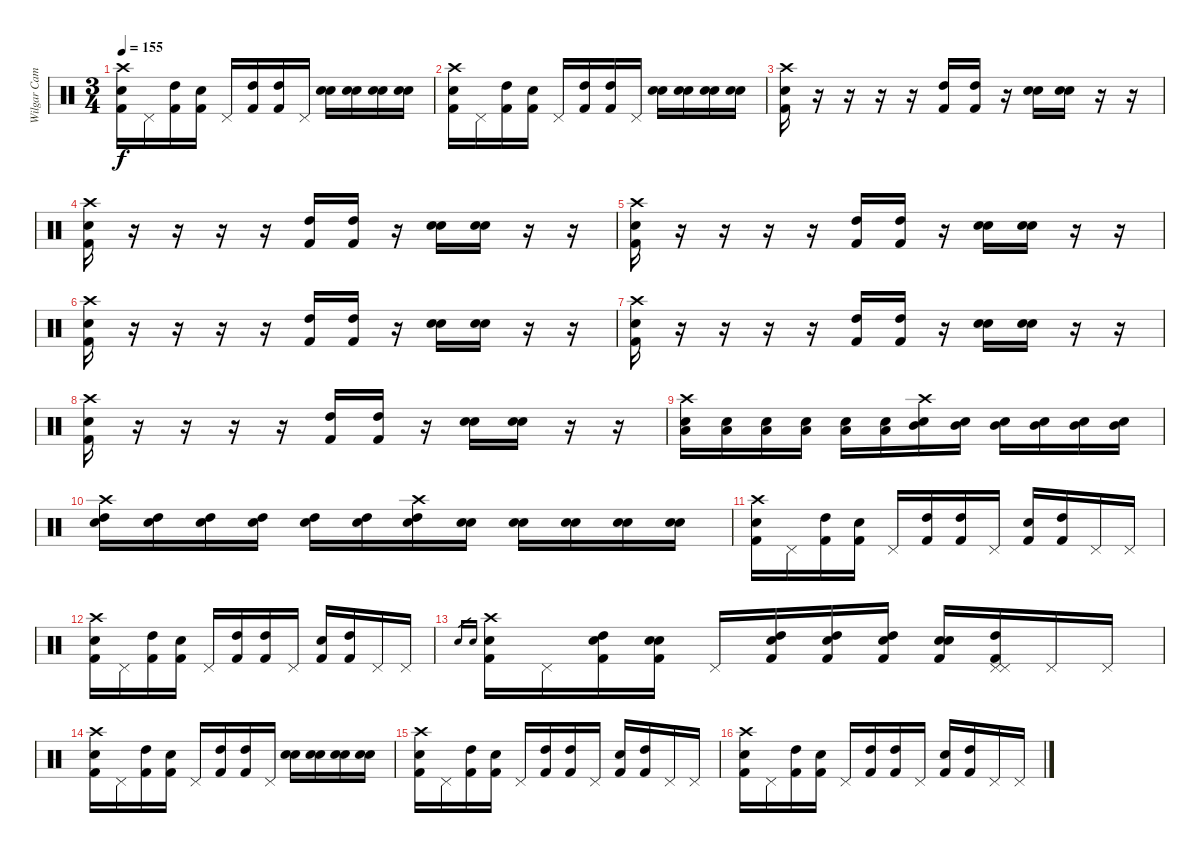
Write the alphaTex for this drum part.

\track ("Wilgar Campbell" "Wilgar Cam") {instrument percussion}
\staff {score}
\articulation defaults
\ts (3 4)
\tempo 155
\clef neutral
\ks c
("Kick (hit) 2" "Snare (hit) 2" "Crash high (hit)").16{dy f} "Pedal Hi-Hat (hit)".16 ("Kick (hit) 2" "High Tom (hit)").16 ("Kick (hit) 2" "Snare (hit) 2").16 "Pedal Hi-Hat (hit)".16 ("High Tom (hit)" "Kick (hit) 2").16 ("High Tom (hit)" "Kick (hit) 2").16 "Pedal Hi-Hat (hit)".16 ("Electric Snare (hit)" "Electric Snare (hit)").16 ("Electric Snare (hit)" "Electric Snare (hit)").16 ("Electric Snare (hit)" "Electric Snare (hit)").16 ("Electric Snare (hit)" "Electric Snare (hit)").16 |
("Kick (hit) 2" "Snare (hit) 2" "Crash high (hit)").16 "Pedal Hi-Hat (hit)".16 ("Kick (hit) 2" "High Tom (hit)").16 ("Kick (hit) 2" "Snare (hit) 2").16 "Pedal Hi-Hat (hit)".16 ("High Tom (hit)" "Kick (hit) 2").16 ("High Tom (hit)" "Kick (hit) 2").16 "Pedal Hi-Hat (hit)".16 ("Electric Snare (hit)" "Electric Snare (hit)").16 ("Electric Snare (hit)" "Electric Snare (hit)").16 ("Electric Snare (hit)" "Electric Snare (hit)").16 ("Electric Snare (hit)" "Electric Snare (hit)").16 |
("Kick (hit) 2" "Snare (hit) 2" "Crash high (hit)").16 r.16 r.16 r.16 r.16 ("High Tom (hit)" "Kick (hit) 2").16 ("High Tom (hit)" "Kick (hit) 2").16 r.16 ("Electric Snare (hit)" "Electric Snare (hit)").16 ("Electric Snare (hit)" "Electric Snare (hit)").16 r.16 r.16 |
("Kick (hit) 2" "Snare (hit) 2" "Crash high (hit)").16 r.16 r.16 r.16 r.16 ("High Tom (hit)" "Kick (hit) 2").16 ("High Tom (hit)" "Kick (hit) 2").16 r.16 ("Electric Snare (hit)" "Electric Snare (hit)").16 ("Electric Snare (hit)" "Electric Snare (hit)").16 r.16 r.16 |
("Kick (hit) 2" "Snare (hit) 2" "Crash high (hit)").16 r.16 r.16 r.16 r.16 ("High Tom (hit)" "Kick (hit) 2").16 ("High Tom (hit)" "Kick (hit) 2").16 r.16 ("Electric Snare (hit)" "Electric Snare (hit)").16 ("Electric Snare (hit)" "Electric Snare (hit)").16 r.16 r.16 |
("Kick (hit) 2" "Snare (hit) 2" "Crash high (hit)").16 r.16 r.16 r.16 r.16 ("High Tom (hit)" "Kick (hit) 2").16 ("High Tom (hit)" "Kick (hit) 2").16 r.16 ("Electric Snare (hit)" "Electric Snare (hit)").16 ("Electric Snare (hit)" "Electric Snare (hit)").16 r.16 r.16 |
("Kick (hit) 2" "Snare (hit) 2" "Crash high (hit)").16 r.16 r.16 r.16 r.16 ("High Tom (hit)" "Kick (hit) 2").16 ("High Tom (hit)" "Kick (hit) 2").16 r.16 ("Electric Snare (hit)" "Electric Snare (hit)").16 ("Electric Snare (hit)" "Electric Snare (hit)").16 r.16 r.16 |
("Kick (hit) 2" "Snare (hit) 2" "Crash high (hit)").16 r.16 r.16 r.16 r.16 ("High Tom (hit)" "Kick (hit) 2").16 ("High Tom (hit)" "Kick (hit) 2").16 r.16 ("Electric Snare (hit)" "Electric Snare (hit)").16 ("Electric Snare (hit)" "Electric Snare (hit)").16 r.16 r.16 |
("Crash high (hit)" "Low Tom (hit)" "Snare (hit) 2").16 ("Low Tom (hit)" "Snare (hit) 2").16 ("Low Tom (hit)" "Snare (hit) 2").16 ("Low Tom (hit)" "Snare (hit) 2").16 ("Low Tom (hit)" "Snare (hit) 2").16 ("Low Tom (hit)" "Snare (hit) 2").16 ("Crash high (hit)" "Mid Tom (hit)" "Snare (hit) 2").16 ("Mid Tom (hit)" "Snare (hit) 2").16 ("Mid Tom (hit)" "Snare (hit) 2").16 ("Mid Tom (hit)" "Snare (hit) 2").16 ("Mid Tom (hit)" "Snare (hit) 2").16 ("Mid Tom (hit)" "Snare (hit) 2").16 |
("Crash high (hit)" "High Tom (hit)" "Snare (hit) 2").16 ("High Tom (hit)" "Snare (hit) 2").16 ("High Tom (hit)" "Snare (hit) 2").16 ("High Tom (hit)" "Snare (hit) 2").16 ("High Tom (hit)" "Snare (hit) 2").16 ("High Tom (hit)" "Snare (hit) 2").16 ("Crash high (hit)" "High Tom (hit)" "Snare (hit) 2").16 ("Electric Snare (hit)" "Electric Snare (hit)").16 ("Electric Snare (hit)" "Snare (hit) 2").16 ("Electric Snare (hit)" "Electric Snare (hit)").16 ("Electric Snare (hit)" "Snare (hit) 2").16 ("Electric Snare (hit)" "Electric Snare (hit)").16 |
("Kick (hit) 2" "Snare (hit) 2" "Crash high (hit)").16 "Pedal Hi-Hat (hit)".16 ("Kick (hit) 2" "High Tom (hit)").16 ("Kick (hit) 2" "Snare (hit) 2").16 "Pedal Hi-Hat (hit)".16 ("High Tom (hit)" "Kick (hit) 2").16 ("High Tom (hit)" "Kick (hit) 2").16 "Pedal Hi-Hat (hit)".16 ("Electric Snare (hit)" "Kick (hit) 2").16 ("High Tom (hit)" "Kick (hit) 2").16 "Pedal Hi-Hat (hit)".16 "Pedal Hi-Hat (hit)".16 |
("Kick (hit) 2" "Snare (hit) 2" "Crash high (hit)").16 "Pedal Hi-Hat (hit)".16 ("Kick (hit) 2" "High Tom (hit)").16 ("Kick (hit) 2" "Snare (hit) 2").16 "Pedal Hi-Hat (hit)".16 ("High Tom (hit)" "Kick (hit) 2").16 ("High Tom (hit)" "Kick (hit) 2").16 "Pedal Hi-Hat (hit)".16 ("Electric Snare (hit)" "Kick (hit) 2").16 ("High Tom (hit)" "Kick (hit) 2").16 "Pedal Hi-Hat (hit)".16 "Pedal Hi-Hat (hit)".16 |
"Electric Snare (hit)".16{gr} "Electric Snare (hit)".16{gr} ("Kick (hit) 2" "Snare (hit) 2" "Crash high (hit)").16 "Pedal Hi-Hat (hit)".16 ("Electric Snare (hit)" "Kick (hit) 2" "High Tom (hit)").16 ("Electric Snare (hit)" "Kick (hit) 2" "Snare (hit) 2").16 "Pedal Hi-Hat (hit)".16 ("Electric Snare (hit)" "High Tom (hit)" "Kick (hit) 2").16 ("Electric Snare (hit)" "High Tom (hit)" "Kick (hit) 2").16 ("Electric Snare (hit)" "High Tom (hit)" "Kick (hit) 2").16 ("Electric Snare (hit)" "Electric Snare (hit)" "Kick (hit) 2").16 ("Kick (hit) 2" "Pedal Hi-Hat (hit)" "High Tom (hit)" "Pedal Hi-Hat (hit)").16 "Pedal Hi-Hat (hit)".16 "Pedal Hi-Hat (hit)".16 |
("Kick (hit) 2" "Snare (hit) 2" "Crash high (hit)").16 "Pedal Hi-Hat (hit)".16 ("Kick (hit) 2" "High Tom (hit)").16 ("Kick (hit) 2" "Snare (hit) 2").16 "Pedal Hi-Hat (hit)".16 ("High Tom (hit)" "Kick (hit) 2").16 ("High Tom (hit)" "Kick (hit) 2").16 "Pedal Hi-Hat (hit)".16 ("Electric Snare (hit)" "Electric Snare (hit)").16 ("Electric Snare (hit)" "Electric Snare (hit)").16 ("Electric Snare (hit)" "Electric Snare (hit)").16 ("Electric Snare (hit)" "Electric Snare (hit)").16 |
("Kick (hit) 2" "Snare (hit) 2" "Crash high (hit)").16 "Pedal Hi-Hat (hit)".16 ("Kick (hit) 2" "High Tom (hit)").16 ("Kick (hit) 2" "Snare (hit) 2").16 "Pedal Hi-Hat (hit)".16 ("High Tom (hit)" "Kick (hit) 2").16 ("High Tom (hit)" "Kick (hit) 2").16 "Pedal Hi-Hat (hit)".16 ("Electric Snare (hit)" "Kick (hit) 2").16 ("High Tom (hit)" "Kick (hit) 2").16 "Pedal Hi-Hat (hit)".16 "Pedal Hi-Hat (hit)".16 |
("Kick (hit) 2" "Snare (hit) 2" "Crash high (hit)").16 "Pedal Hi-Hat (hit)".16 ("Kick (hit) 2" "High Tom (hit)").16 ("Kick (hit) 2" "Snare (hit) 2").16 "Pedal Hi-Hat (hit)".16 ("High Tom (hit)" "Kick (hit) 2").16 ("High Tom (hit)" "Kick (hit) 2").16 "Pedal Hi-Hat (hit)".16 ("Electric Snare (hit)" "Kick (hit) 2").16 ("High Tom (hit)" "Kick (hit) 2").16 "Pedal Hi-Hat (hit)".16 "Pedal Hi-Hat (hit)".16
